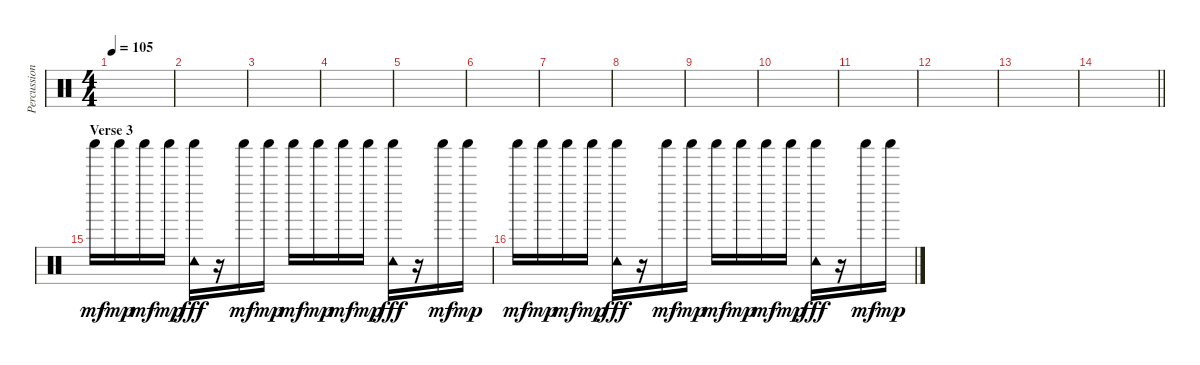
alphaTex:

\track ("Percussion" "Percussion") {instrument percussion}
\staff {score}
\articulation defaults
\ts (4 4)
\tempo 105
\clef neutral
\ks c
|
|
|
|
|
|
|
|
|
|
|
|
|
\barLineRight lightlight
|
\section ("" "Verse 3")
"Shaker (hit)".16{dy mf} "Shaker (hit)".16{dy mp} "Shaker (hit)".16{dy mf} "Shaker (hit)".16{dy mp} ("Shaker (hit)" "Tambourine (hit)").16{dy fff} r.16 "Shaker (hit)".16{dy mf} "Shaker (hit)".16{dy mp} "Shaker (hit)".16{dy mf} "Shaker (hit)".16{dy mp} "Shaker (hit)".16{dy mf} "Shaker (hit)".16{dy mp} ("Shaker (hit)" "Tambourine (hit)").16{dy fff} r.16 "Shaker (hit)".16{dy mf} "Shaker (hit)".16{dy mp} |
"Shaker (hit)".16{dy mf} "Shaker (hit)".16{dy mp} "Shaker (hit)".16{dy mf} "Shaker (hit)".16{dy mp} ("Shaker (hit)" "Tambourine (hit)").16{dy fff} r.16 "Shaker (hit)".16{dy mf} "Shaker (hit)".16{dy mp} "Shaker (hit)".16{dy mf} "Shaker (hit)".16{dy mp} "Shaker (hit)".16{dy mf} "Shaker (hit)".16{dy mp} ("Shaker (hit)" "Tambourine (hit)").16{dy fff} r.16 "Shaker (hit)".16{dy mf} "Shaker (hit)".16{dy mp}
